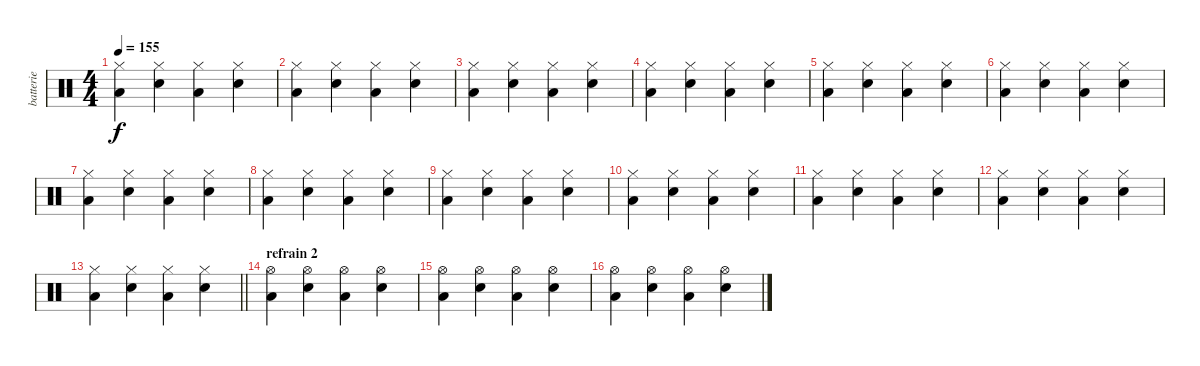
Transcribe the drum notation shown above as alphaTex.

\track ("batterie" "batterie") {instrument percussion}
\staff {score}
\articulation defaults
\ts (4 4)
\tempo 155
\clef neutral
\ks c
("Hi-Hat (closed)" "Low Floor Tom (hit)").4{dy f} ("Hi-Hat (closed)" "Electric Snare (hit)").4 ("Hi-Hat (closed)" "Low Floor Tom (hit)").4 ("Hi-Hat (closed)" "Electric Snare (hit)").4 |
("Hi-Hat (closed)" "Low Floor Tom (hit)").4 ("Hi-Hat (closed)" "Electric Snare (hit)").4 ("Hi-Hat (closed)" "Low Floor Tom (hit)").4 ("Hi-Hat (closed)" "Electric Snare (hit)").4 |
("Hi-Hat (closed)" "Low Floor Tom (hit)").4 ("Hi-Hat (closed)" "Electric Snare (hit)").4 ("Hi-Hat (closed)" "Low Floor Tom (hit)").4 ("Hi-Hat (closed)" "Electric Snare (hit)").4 |
("Hi-Hat (closed)" "Low Floor Tom (hit)").4 ("Hi-Hat (closed)" "Electric Snare (hit)").4 ("Hi-Hat (closed)" "Low Floor Tom (hit)").4 ("Hi-Hat (closed)" "Electric Snare (hit)").4 |
("Hi-Hat (closed)" "Low Floor Tom (hit)").4 ("Hi-Hat (closed)" "Electric Snare (hit)").4 ("Hi-Hat (closed)" "Low Floor Tom (hit)").4 ("Hi-Hat (closed)" "Electric Snare (hit)").4 |
("Hi-Hat (closed)" "Low Floor Tom (hit)").4 ("Hi-Hat (closed)" "Electric Snare (hit)").4 ("Hi-Hat (closed)" "Low Floor Tom (hit)").4 ("Hi-Hat (closed)" "Electric Snare (hit)").4 |
("Hi-Hat (closed)" "Low Floor Tom (hit)").4 ("Hi-Hat (closed)" "Electric Snare (hit)").4 ("Hi-Hat (closed)" "Low Floor Tom (hit)").4 ("Hi-Hat (closed)" "Electric Snare (hit)").4 |
("Hi-Hat (closed)" "Low Floor Tom (hit)").4 ("Hi-Hat (closed)" "Electric Snare (hit)").4 ("Hi-Hat (closed)" "Low Floor Tom (hit)").4 ("Hi-Hat (closed)" "Electric Snare (hit)").4 |
("Hi-Hat (closed)" "Low Floor Tom (hit)").4 ("Hi-Hat (closed)" "Electric Snare (hit)").4 ("Hi-Hat (closed)" "Low Floor Tom (hit)").4 ("Hi-Hat (closed)" "Electric Snare (hit)").4 |
("Hi-Hat (closed)" "Low Floor Tom (hit)").4 ("Hi-Hat (closed)" "Electric Snare (hit)").4 ("Hi-Hat (closed)" "Low Floor Tom (hit)").4 ("Hi-Hat (closed)" "Electric Snare (hit)").4 |
("Hi-Hat (closed)" "Low Floor Tom (hit)").4 ("Hi-Hat (closed)" "Electric Snare (hit)").4 ("Hi-Hat (closed)" "Low Floor Tom (hit)").4 ("Hi-Hat (closed)" "Electric Snare (hit)").4 |
("Hi-Hat (closed)" "Low Floor Tom (hit)").4 ("Hi-Hat (closed)" "Electric Snare (hit)").4 ("Hi-Hat (closed)" "Low Floor Tom (hit)").4 ("Hi-Hat (closed)" "Electric Snare (hit)").4 |
\barLineRight lightlight
("Hi-Hat (closed)" "Low Floor Tom (hit)").4 ("Hi-Hat (closed)" "Electric Snare (hit)").4 ("Hi-Hat (closed)" "Low Floor Tom (hit)").4 ("Hi-Hat (closed)" "Electric Snare (hit)").4 |
\section ("" "refrain 2")
("Hi-Hat (open)" "Low Floor Tom (hit)").4 ("Hi-Hat (open)" "Electric Snare (hit)").4 ("Hi-Hat (open)" "Low Floor Tom (hit)").4 ("Hi-Hat (open)" "Electric Snare (hit)").4 |
("Hi-Hat (open)" "Low Floor Tom (hit)").4 ("Hi-Hat (open)" "Electric Snare (hit)").4 ("Hi-Hat (open)" "Low Floor Tom (hit)").4 ("Hi-Hat (open)" "Electric Snare (hit)").4 |
("Hi-Hat (open)" "Low Floor Tom (hit)").4 ("Hi-Hat (open)" "Electric Snare (hit)").4 ("Hi-Hat (open)" "Low Floor Tom (hit)").4 ("Hi-Hat (open)" "Electric Snare (hit)").4
